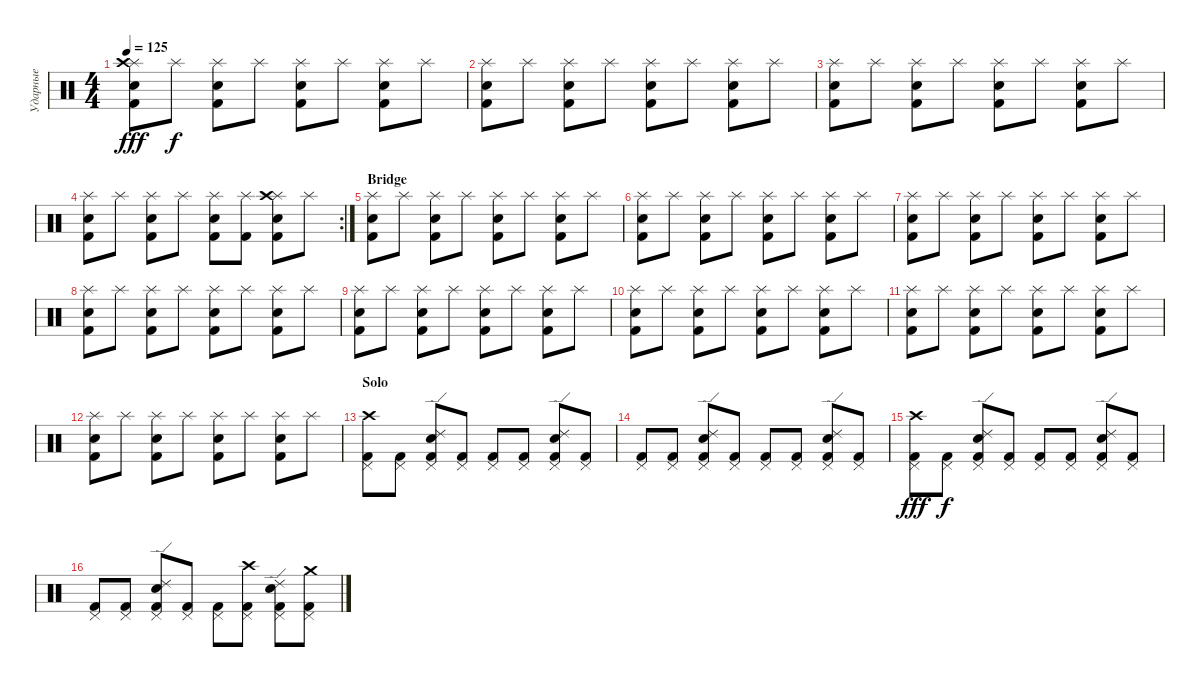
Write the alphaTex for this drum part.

\track ("Ударные" "Ударные") {instrument percussion}
\staff {score}
\articulation defaults
\ts (4 4)
\tempo 125
\clef neutral
\ks c
("Snare (hit) 2" "Splash (hit)" "Crash high (hit)" "Kick (hit) 2").8{dy fff} "Splash (hit)".8{dy f} ("Electric Snare (hit)" "Splash (hit)" "Kick (hit) 2").8 "Splash (hit)".8 ("Snare (hit) 2" "Splash (hit)" "Kick (hit) 2").8 "Splash (hit)".8 ("Electric Snare (hit)" "Splash (hit)" "Kick (hit) 2").8 "Splash (hit)".8 |
("Snare (hit) 2" "Splash (hit)" "Kick (hit) 2").8 "Splash (hit)".8 ("Electric Snare (hit)" "Splash (hit)" "Kick (hit) 2").8 "Splash (hit)".8 ("Snare (hit) 2" "Splash (hit)" "Kick (hit) 2").8 "Splash (hit)".8 ("Electric Snare (hit)" "Splash (hit)" "Kick (hit) 2").8 "Splash (hit)".8 |
("Snare (hit) 2" "Splash (hit)" "Kick (hit) 2").8 "Splash (hit)".8 ("Electric Snare (hit)" "Splash (hit)" "Kick (hit) 2").8 "Splash (hit)".8 ("Snare (hit) 2" "Splash (hit)" "Kick (hit) 2").8 "Splash (hit)".8 ("Electric Snare (hit)" "Splash (hit)" "Kick (hit) 2").8 "Splash (hit)".8 |
\rc 2
("Snare (hit) 2" "Splash (hit)" "Kick (hit) 2").8 "Splash (hit)".8 ("Electric Snare (hit)" "Splash (hit)" "Kick (hit) 2").8 "Splash (hit)".8 ("Snare (hit) 2" "Splash (hit)" "Kick (hit) 2").8 ("Splash (hit)" "Kick (hit) 2").8 ("Electric Snare (hit)" "Splash (hit)" "Crash high (hit)" "Kick (hit) 2").8 "Splash (hit)".8 |
\section ("" "Bridge")
("Snare (hit) 2" "Splash (hit)" "Kick (hit) 2").8 "Splash (hit)".8 ("Electric Snare (hit)" "Splash (hit)" "Kick (hit) 2").8 "Splash (hit)".8 ("Snare (hit) 2" "Splash (hit)" "Kick (hit) 2").8 "Splash (hit)".8 ("Electric Snare (hit)" "Splash (hit)" "Kick (hit) 2").8 "Splash (hit)".8 |
("Snare (hit) 2" "Splash (hit)" "Kick (hit) 2").8 "Splash (hit)".8 ("Electric Snare (hit)" "Splash (hit)" "Kick (hit) 2").8 "Splash (hit)".8 ("Snare (hit) 2" "Splash (hit)" "Kick (hit) 2").8 "Splash (hit)".8 ("Electric Snare (hit)" "Splash (hit)" "Kick (hit) 2").8 "Splash (hit)".8 |
("Snare (hit) 2" "Splash (hit)" "Kick (hit) 2").8 "Splash (hit)".8 ("Electric Snare (hit)" "Splash (hit)" "Kick (hit) 2").8 "Splash (hit)".8 ("Snare (hit) 2" "Splash (hit)" "Kick (hit) 2").8 "Splash (hit)".8 ("Electric Snare (hit)" "Splash (hit)" "Kick (hit) 2").8 "Splash (hit)".8 |
("Snare (hit) 2" "Splash (hit)" "Kick (hit) 2").8 "Splash (hit)".8 ("Electric Snare (hit)" "Splash (hit)" "Kick (hit) 2").8 "Splash (hit)".8 ("Snare (hit) 2" "Splash (hit)" "Kick (hit) 2").8 "Splash (hit)".8 ("Electric Snare (hit)" "Splash (hit)" "Kick (hit) 2").8 "Splash (hit)".8 |
("Snare (hit) 2" "Splash (hit)" "Kick (hit) 2").8 "Splash (hit)".8 ("Electric Snare (hit)" "Splash (hit)" "Kick (hit) 2").8 "Splash (hit)".8 ("Snare (hit) 2" "Splash (hit)" "Kick (hit) 2").8 "Splash (hit)".8 ("Electric Snare (hit)" "Splash (hit)" "Kick (hit) 2").8 "Splash (hit)".8 |
("Snare (hit) 2" "Splash (hit)" "Kick (hit) 2").8 "Splash (hit)".8 ("Electric Snare (hit)" "Splash (hit)" "Kick (hit) 2").8 "Splash (hit)".8 ("Snare (hit) 2" "Splash (hit)" "Kick (hit) 2").8 "Splash (hit)".8 ("Electric Snare (hit)" "Splash (hit)" "Kick (hit) 2").8 "Splash (hit)".8 |
("Snare (hit) 2" "Splash (hit)" "Kick (hit) 2").8 "Splash (hit)".8 ("Electric Snare (hit)" "Splash (hit)" "Kick (hit) 2").8 "Splash (hit)".8 ("Snare (hit) 2" "Splash (hit)" "Kick (hit) 2").8 "Splash (hit)".8 ("Electric Snare (hit)" "Splash (hit)" "Kick (hit) 2").8 "Splash (hit)".8 |
("Snare (hit) 2" "Splash (hit)" "Kick (hit) 2").8 "Splash (hit)".8 ("Electric Snare (hit)" "Splash (hit)" "Kick (hit) 2").8 "Splash (hit)".8 ("Snare (hit) 2" "Splash (hit)" "Kick (hit) 2").8 "Splash (hit)".8 ("Electric Snare (hit)" "Splash (hit)" "Kick (hit) 2").8 "Splash (hit)".8 |
\section ("" "Solo")
("Crash high (hit)" "Pedal Hi-Hat (hit)" "Kick (hit) 2").8{volume 16} ("Pedal Hi-Hat (hit)" "Kick (hit) 2").8 ("Electric Snare (hit)" "Ride (edge) 2" "Pedal Hi-Hat (hit)" "Kick (hit) 2").8 ("Pedal Hi-Hat (hit)" "Kick (hit) 2").8 ("Pedal Hi-Hat (hit)" "Kick (hit) 2").8 ("Pedal Hi-Hat (hit)" "Kick (hit) 2").8 ("Electric Snare (hit)" "Ride (edge) 2" "Pedal Hi-Hat (hit)" "Kick (hit) 2").8 ("Pedal Hi-Hat (hit)" "Kick (hit) 2").8 |
("Pedal Hi-Hat (hit)" "Kick (hit) 2").8 ("Pedal Hi-Hat (hit)" "Kick (hit) 2").8 ("Electric Snare (hit)" "Ride (edge) 2" "Pedal Hi-Hat (hit)" "Kick (hit) 2").8 ("Pedal Hi-Hat (hit)" "Kick (hit) 2").8 ("Pedal Hi-Hat (hit)" "Kick (hit) 2").8 ("Pedal Hi-Hat (hit)" "Kick (hit) 2").8 ("Electric Snare (hit)" "Ride (edge) 2" "Pedal Hi-Hat (hit)" "Kick (hit) 2").8 ("Pedal Hi-Hat (hit)" "Kick (hit) 2").8 |
("Crash high (hit)" "Pedal Hi-Hat (hit)" "Kick (hit) 2").8{dy fff} ("Pedal Hi-Hat (hit)" "Kick (hit) 2").8{dy f} ("Electric Snare (hit)" "Ride (edge) 2" "Pedal Hi-Hat (hit)" "Kick (hit) 2").8 ("Pedal Hi-Hat (hit)" "Kick (hit) 2").8 ("Pedal Hi-Hat (hit)" "Kick (hit) 2").8 ("Pedal Hi-Hat (hit)" "Kick (hit) 2").8 ("Electric Snare (hit)" "Ride (edge) 2" "Pedal Hi-Hat (hit)" "Kick (hit) 2").8 ("Pedal Hi-Hat (hit)" "Kick (hit) 2").8 |
("Pedal Hi-Hat (hit)" "Kick (hit) 2").8 ("Pedal Hi-Hat (hit)" "Kick (hit) 2").8 ("Electric Snare (hit)" "Ride (edge) 2" "Pedal Hi-Hat (hit)" "Kick (hit) 2").8 ("Pedal Hi-Hat (hit)" "Kick (hit) 2").8 ("Pedal Hi-Hat (hit)" "Kick (hit) 2").8 ("Crash high (hit)" "Pedal Hi-Hat (hit)" "Kick (hit) 2").8 ("Electric Snare (hit)" "Ride (edge) 2" "Pedal Hi-Hat (hit)" "Kick (hit) 2").8 ("Crash medium (hit)" "Pedal Hi-Hat (hit)" "Kick (hit) 2").8
